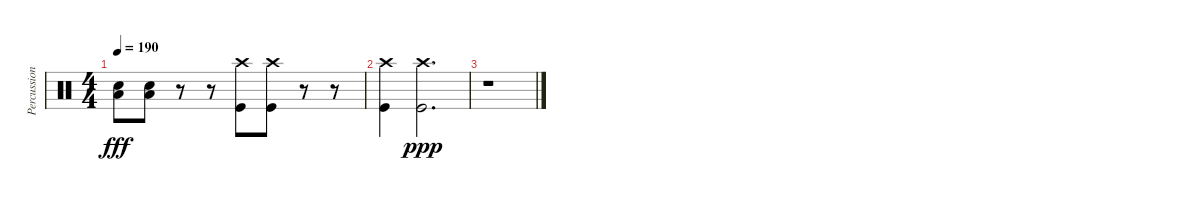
\track ("Percussion" "Percussion") {instrument percussion}
\staff {score}
\articulation defaults
\ts (4 4)
\tempo 190
\clef neutral
\ks c
("Low Tom (hit)" "Snare (hit) 2").8{dy fff} ("Low Tom (hit)" "Snare (hit) 2").8 r.8 r.8 ("Crash high (hit)" "Kick (hit)").8 ("Crash high (hit)" "Kick (hit)").8 r.8 r.8 |
("Crash high (hit)" "Kick (hit)").4 ("Crash high (hit)" "Kick (hit)").2{d dy ppp} |
r.1
